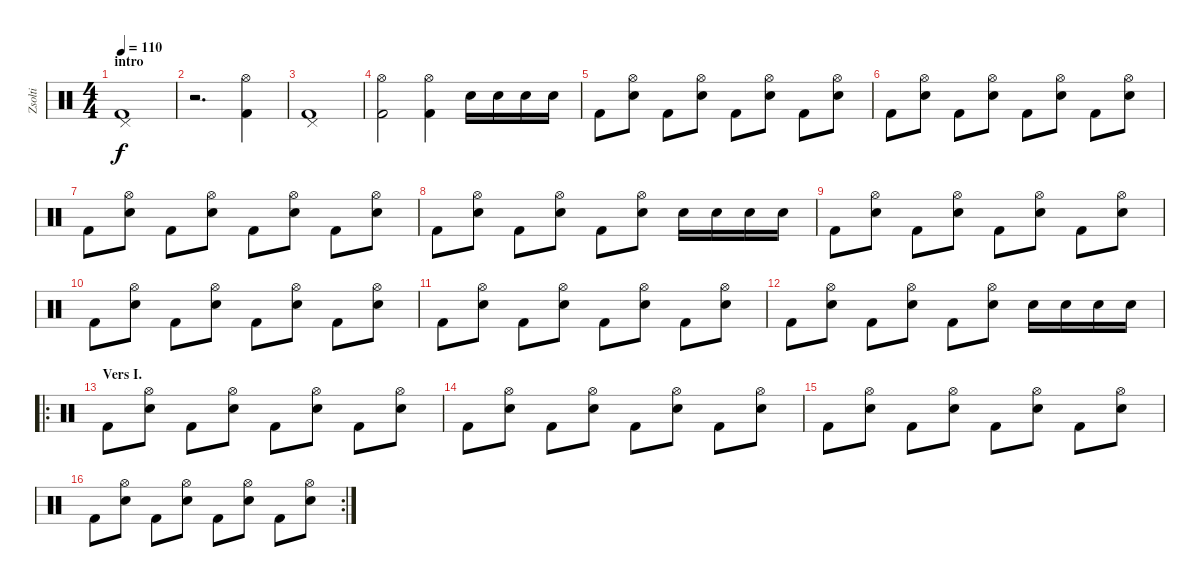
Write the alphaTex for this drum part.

\track ("Zsolti" "Zsolti") {instrument percussion}
\staff {score}
\articulation defaults
\ts (4 4)
\section ("" "intro")
\tempo 110
\clef neutral
\ks c
("Kick (hit) 2" "Pedal Hi-Hat (hit)").1{dy f} |
r.2{d} ("Kick (hit) 2" "Hi-Hat (open)").4 |
("Kick (hit) 2" "Pedal Hi-Hat (hit)").1 |
("Kick (hit) 2" "Hi-Hat (open)").2 ("Kick (hit) 2" "Hi-Hat (open)").4 "Snare (hit) 2".16 "Snare (hit) 2".16 "Snare (hit) 2".16 "Snare (hit) 2".16 |
"Kick (hit) 2".8 ("Hi-Hat (open)" "Snare (hit) 2").8 "Kick (hit) 2".8 ("Hi-Hat (open)" "Snare (hit) 2").8 "Kick (hit) 2".8 ("Hi-Hat (open)" "Snare (hit) 2").8 "Kick (hit) 2".8 ("Hi-Hat (open)" "Snare (hit) 2").8 |
"Kick (hit) 2".8 ("Hi-Hat (open)" "Snare (hit) 2").8 "Kick (hit) 2".8 ("Hi-Hat (open)" "Snare (hit) 2").8 "Kick (hit) 2".8 ("Hi-Hat (open)" "Snare (hit) 2").8 "Kick (hit) 2".8 ("Hi-Hat (open)" "Snare (hit) 2").8 |
"Kick (hit) 2".8 ("Hi-Hat (open)" "Snare (hit) 2").8 "Kick (hit) 2".8 ("Hi-Hat (open)" "Snare (hit) 2").8 "Kick (hit) 2".8 ("Hi-Hat (open)" "Snare (hit) 2").8 "Kick (hit) 2".8 ("Hi-Hat (open)" "Snare (hit) 2").8 |
"Kick (hit) 2".8 ("Hi-Hat (open)" "Snare (hit) 2").8 "Kick (hit) 2".8 ("Hi-Hat (open)" "Snare (hit) 2").8 "Kick (hit) 2".8 ("Hi-Hat (open)" "Snare (hit) 2").8 "Snare (hit) 2".16 "Snare (hit) 2".16 "Snare (hit) 2".16 "Snare (hit) 2".16 |
"Kick (hit) 2".8 ("Hi-Hat (open)" "Snare (hit) 2").8 "Kick (hit) 2".8 ("Hi-Hat (open)" "Snare (hit) 2").8 "Kick (hit) 2".8 ("Hi-Hat (open)" "Snare (hit) 2").8 "Kick (hit) 2".8 ("Hi-Hat (open)" "Snare (hit) 2").8 |
"Kick (hit) 2".8 ("Hi-Hat (open)" "Snare (hit) 2").8 "Kick (hit) 2".8 ("Hi-Hat (open)" "Snare (hit) 2").8 "Kick (hit) 2".8 ("Hi-Hat (open)" "Snare (hit) 2").8 "Kick (hit) 2".8 ("Hi-Hat (open)" "Snare (hit) 2").8 |
"Kick (hit) 2".8 ("Hi-Hat (open)" "Snare (hit) 2").8 "Kick (hit) 2".8 ("Hi-Hat (open)" "Snare (hit) 2").8 "Kick (hit) 2".8 ("Hi-Hat (open)" "Snare (hit) 2").8 "Kick (hit) 2".8 ("Hi-Hat (open)" "Snare (hit) 2").8 |
"Kick (hit) 2".8 ("Hi-Hat (open)" "Snare (hit) 2").8 "Kick (hit) 2".8 ("Hi-Hat (open)" "Snare (hit) 2").8 "Kick (hit) 2".8 ("Hi-Hat (open)" "Snare (hit) 2").8 "Snare (hit) 2".16 "Snare (hit) 2".16 "Snare (hit) 2".16 "Snare (hit) 2".16 |
\ro
\section ("" "Vers I.")
"Kick (hit) 2".8 ("Hi-Hat (open)" "Snare (hit) 2").8 "Kick (hit) 2".8 ("Hi-Hat (open)" "Snare (hit) 2").8 "Kick (hit) 2".8 ("Hi-Hat (open)" "Snare (hit) 2").8 "Kick (hit) 2".8 ("Hi-Hat (open)" "Snare (hit) 2").8 |
"Kick (hit) 2".8 ("Hi-Hat (open)" "Snare (hit) 2").8 "Kick (hit) 2".8 ("Hi-Hat (open)" "Snare (hit) 2").8 "Kick (hit) 2".8 ("Hi-Hat (open)" "Snare (hit) 2").8 "Kick (hit) 2".8 ("Hi-Hat (open)" "Snare (hit) 2").8 |
"Kick (hit) 2".8 ("Hi-Hat (open)" "Snare (hit) 2").8 "Kick (hit) 2".8 ("Hi-Hat (open)" "Snare (hit) 2").8 "Kick (hit) 2".8 ("Hi-Hat (open)" "Snare (hit) 2").8 "Kick (hit) 2".8 ("Hi-Hat (open)" "Snare (hit) 2").8 |
\rc 2 "Kick (hit) 2".8
("Hi-Hat (open)" "Snare (hit) 2").8 "Kick (hit) 2".8 ("Hi-Hat (open)" "Snare (hit) 2").8 "Kick (hit) 2".8 ("Hi-Hat (open)" "Snare (hit) 2").8 "Kick (hit) 2".8 ("Hi-Hat (open)" "Snare (hit) 2").8
